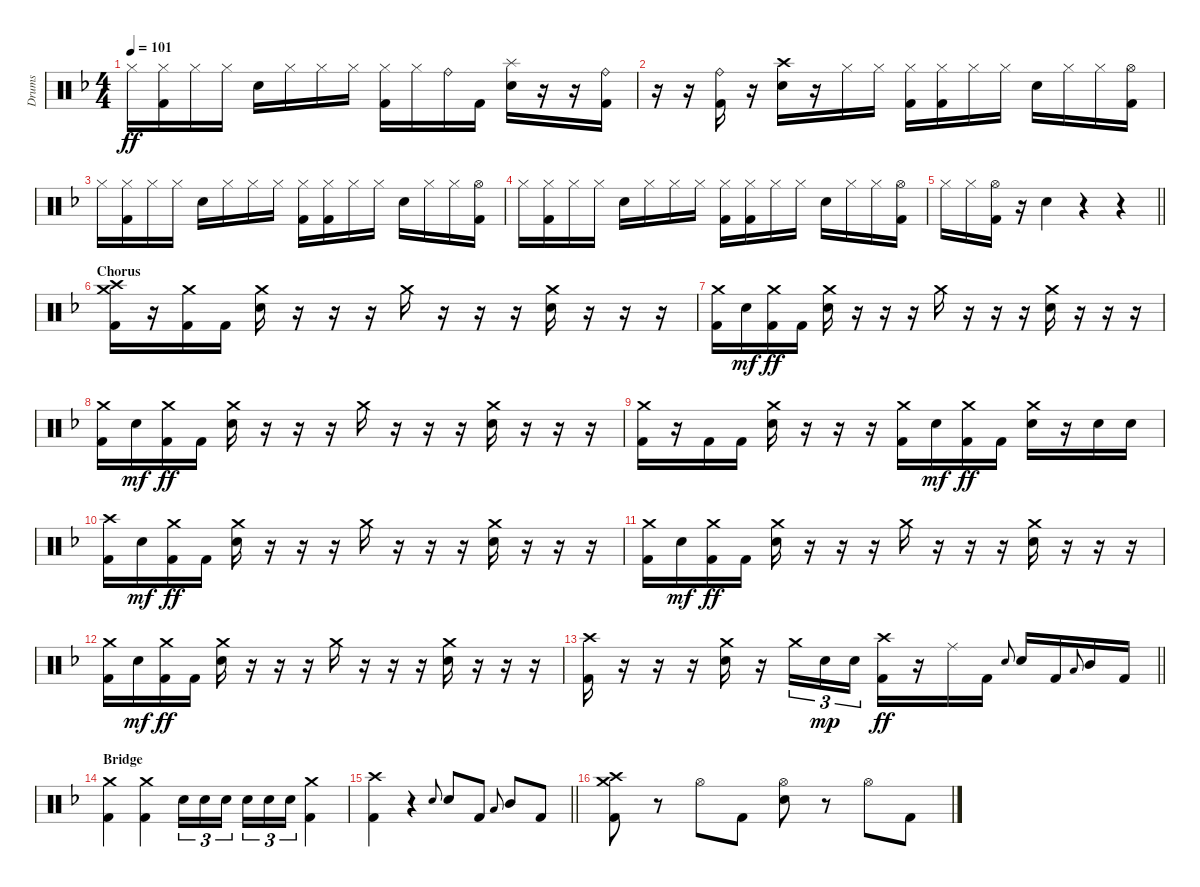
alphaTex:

\track ("Drums" "Drums") {instrument percussion}
\staff {score}
\articulation defaults
\ts (4 4)
\tempo 101
\clef neutral
\ks dminor "Hi-Hat (closed)".16{dy ff}
("Hi-Hat (closed)" "Kick (hit) 2").16 "Hi-Hat (closed)".16 "Hi-Hat (closed)".16 "Electric Snare (hit)".16 "Hi-Hat (closed)".16 "Hi-Hat (closed)".16 "Hi-Hat (closed)".16 ("Hi-Hat (closed)" "Kick (hit) 2").16 "Hi-Hat (closed)".16 "Ride (bell)".16 "Kick (hit) 2".16 ("Splash (hit)" "Electric Snare (hit)").16 r.16 r.16 ("Ride (bell)" "Kick (hit) 2").16 |
r.16 r.16 ("Ride (bell)" "Kick (hit) 2").16 r.16 ("Crash high (hit)" "Electric Snare (hit)").16 r.16 "Hi-Hat (closed)".16 "Hi-Hat (closed)".16 ("Hi-Hat (closed)" "Kick (hit) 2").16 ("Hi-Hat (closed)" "Kick (hit) 2").16 "Hi-Hat (closed)".16 "Hi-Hat (closed)".16 "Electric Snare (hit)".16 "Hi-Hat (closed)".16 "Hi-Hat (closed)".16 ("Hi-Hat (open)" "Kick (hit) 2").16 |
"Hi-Hat (closed)".16 ("Hi-Hat (closed)" "Kick (hit) 2").16 "Hi-Hat (closed)".16 "Hi-Hat (closed)".16 "Electric Snare (hit)".16 "Hi-Hat (closed)".16 "Hi-Hat (closed)".16 "Hi-Hat (closed)".16 ("Hi-Hat (closed)" "Kick (hit) 2").16 ("Hi-Hat (closed)" "Kick (hit) 2").16 "Hi-Hat (closed)".16 "Hi-Hat (closed)".16 "Electric Snare (hit)".16 "Hi-Hat (closed)".16 "Hi-Hat (closed)".16 ("Hi-Hat (open)" "Kick (hit) 2").16 |
"Hi-Hat (closed)".16 ("Hi-Hat (closed)" "Kick (hit) 2").16 "Hi-Hat (closed)".16 "Hi-Hat (closed)".16 "Electric Snare (hit)".16 "Hi-Hat (closed)".16 "Hi-Hat (closed)".16 "Hi-Hat (closed)".16 ("Hi-Hat (closed)" "Kick (hit) 2").16 ("Hi-Hat (closed)" "Kick (hit) 2").16 "Hi-Hat (closed)".16 "Hi-Hat (closed)".16 "Electric Snare (hit)".16 "Hi-Hat (closed)".16 "Hi-Hat (closed)".16 ("Hi-Hat (open)" "Kick (hit) 2").16 |
\barLineRight lightlight "Hi-Hat (closed)".16 "Hi-Hat (closed)".16
("Hi-Hat (open)" "Kick (hit) 2").16 r.16 "Electric Snare (hit)".4 r.4 r.4 |
\section ("" "Chorus")
("Crash medium (hit)" "Crash high (hit)" "Kick (hit) 2").16 r.16 ("Crash medium (hit)" "Kick (hit) 2").16 "Kick (hit) 2".16 ("Crash medium (hit)" "Electric Snare (hit)").16 r.16 r.16 r.16 "Crash medium (hit)".16 r.16 r.16 r.16 ("Crash medium (hit)" "Electric Snare (hit)").16 r.16 r.16 r.16 |
("Crash medium (hit)" "Kick (hit) 2").16 "Electric Snare (hit)".16{dy mf} ("Crash medium (hit)" "Kick (hit) 2").16{dy ff} "Kick (hit) 2".16 ("Crash medium (hit)" "Electric Snare (hit)").16 r.16 r.16 r.16 "Crash medium (hit)".16 r.16 r.16 r.16 ("Crash medium (hit)" "Electric Snare (hit)").16 r.16 r.16 r.16 |
("Crash medium (hit)" "Kick (hit) 2").16 "Electric Snare (hit)".16{dy mf} ("Crash medium (hit)" "Kick (hit) 2").16{dy ff} "Kick (hit) 2".16 ("Crash medium (hit)" "Electric Snare (hit)").16 r.16 r.16 r.16 "Crash medium (hit)".16 r.16 r.16 r.16 ("Crash medium (hit)" "Electric Snare (hit)").16 r.16 r.16 r.16 |
("Crash medium (hit)" "Kick (hit) 2").16 r.16 "Kick (hit) 2".16 "Kick (hit) 2".16 ("Crash medium (hit)" "Electric Snare (hit)").16 r.16 r.16 r.16 ("Crash medium (hit)" "Kick (hit) 2").16 "Electric Snare (hit)".16{dy mf} ("Crash medium (hit)" "Kick (hit) 2").16{dy ff} "Kick (hit) 2".16 ("Crash medium (hit)" "Electric Snare (hit)").16 r.16 "Electric Snare (hit)".16 "Electric Snare (hit)".16 |
("Crash high (hit)" "Kick (hit) 2").16 "Electric Snare (hit)".16{dy mf} ("Crash medium (hit)" "Kick (hit) 2").16{dy ff} "Kick (hit) 2".16 ("Crash medium (hit)" "Electric Snare (hit)").16 r.16 r.16 r.16 "Crash medium (hit)".16 r.16 r.16 r.16 ("Crash medium (hit)" "Electric Snare (hit)").16 r.16 r.16 r.16 |
("Crash medium (hit)" "Kick (hit) 2").16 "Electric Snare (hit)".16{dy mf} ("Crash medium (hit)" "Kick (hit) 2").16{dy ff} "Kick (hit) 2".16 ("Crash medium (hit)" "Electric Snare (hit)").16 r.16 r.16 r.16 "Crash medium (hit)".16 r.16 r.16 r.16 ("Crash medium (hit)" "Electric Snare (hit)").16 r.16 r.16 r.16 |
("Crash medium (hit)" "Kick (hit) 2").16 "Electric Snare (hit)".16{dy mf} ("Crash medium (hit)" "Kick (hit) 2").16{dy ff} "Kick (hit) 2".16 ("Crash medium (hit)" "Electric Snare (hit)").16 r.16 r.16 r.16 "Crash medium (hit)".16 r.16 r.16 r.16 ("Crash medium (hit)" "Electric Snare (hit)").16 r.16 r.16 r.16 |
\barLineRight lightlight
("Crash high (hit)" "Kick (hit) 2").16 r.16 r.16 r.16 ("Crash medium (hit)" "Electric Snare (hit)").16 r.16 "Crash medium (hit)".16{tu (3 2)} "Electric Snare (hit)".16{tu (3 2) dy mp} "Electric Snare (hit)".16{tu (3 2)} ("Crash high (hit)" "Kick (hit) 2").16{dy ff} r.16 "Ride (middle)".16 "Kick (hit) 2".16 "Electric Snare (hit)".8{gr onbeat} "Electric Snare (hit)".16 "Kick (hit) 2".16 "Low Tom (hit)".8{gr onbeat} "Mid Tom (hit)".16 "Kick (hit) 2".16 |
\section ("" "Bridge")
("Crash medium (hit)" "Kick (hit) 2").4 ("Crash medium (hit)" "Kick (hit) 2").4 "Electric Snare (hit)".16{tu (3 2)} "Electric Snare (hit)".16{tu (3 2)} "Electric Snare (hit)".16{tu (3 2) beam splitsecondary} "Electric Snare (hit)".16{tu (3 2)} "Electric Snare (hit)".16{tu (3 2)} "Electric Snare (hit)".16{tu (3 2)} ("Crash medium (hit)" "Kick (hit) 2").4 |
\barLineRight lightlight
("Crash high (hit)" "Kick (hit) 2").4 r.4 "Electric Snare (hit)".8{gr onbeat} "Electric Snare (hit)".8 "Kick (hit) 2".8 "Low Tom (hit)".8{gr onbeat} "Mid Tom (hit)".8 "Kick (hit) 2".8 |
("Crash medium (hit)" "Crash high (hit)" "Kick (hit) 2").8 r.8 "Hi-Hat (open)".8 "Kick (hit) 2".8 ("Hi-Hat (open)" "Electric Snare (hit)").8 r.8 "Hi-Hat (open)".8 "Kick (hit) 2".8
